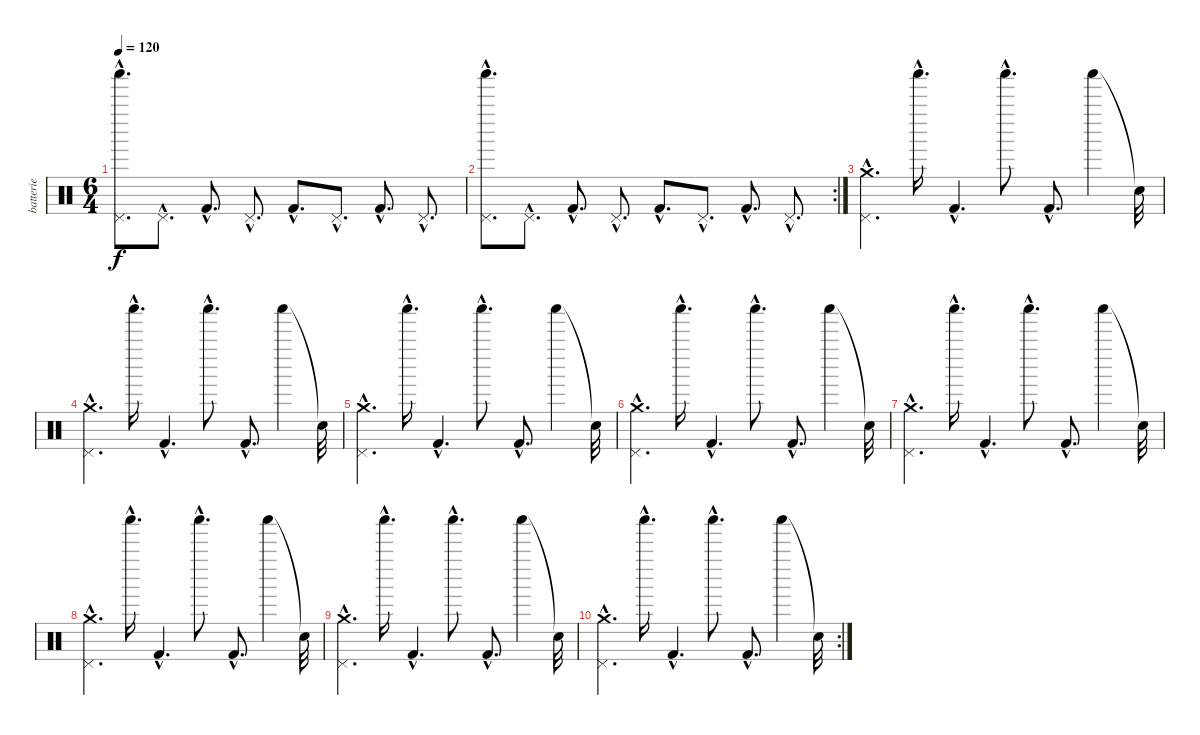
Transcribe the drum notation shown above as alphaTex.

\track ("batterie" "batterie") {instrument percussion}
\staff {score}
\articulation defaults
\ts (6 4)
\tempo 120
\clef neutral
\ks c
("Pedal Hi-Hat (hit)"{hac} "Shaker (hit)"{hac}).8{d dy f} "Pedal Hi-Hat (hit)"{hac}.8{d} "Kick (hit) 2"{hac}.8{d} "Pedal Hi-Hat (hit)"{hac}.8{d} "Kick (hit) 2"{hac}.8{d} "Pedal Hi-Hat (hit)"{hac}.8{d} "Kick (hit) 2"{hac}.8{d} "Pedal Hi-Hat (hit)"{hac}.8{d} |
\rc 2
("Pedal Hi-Hat (hit)"{hac} "Shaker (hit)"{hac}).8{d} "Pedal Hi-Hat (hit)"{hac}.8{d} "Kick (hit) 2"{hac}.8{d} "Pedal Hi-Hat (hit)"{hac}.8{d} "Kick (hit) 2"{hac}.8{d} "Pedal Hi-Hat (hit)"{hac}.8{d} "Kick (hit) 2"{hac}.8{d} "Pedal Hi-Hat (hit)"{hac}.8{d} |
("Pedal Hi-Hat (hit)"{hac} "Crash medium (hit)"{hac}).4{d} "Shaker (hit)"{hac}.16{d} "Kick (hit) 2"{hac}.4{d} "Shaker (hit)"{hac}.8{d} "Kick (hit) 2"{hac}.8{d} "Shaker (hit)".4 "Snare (hit)"{t}.32 |
("Pedal Hi-Hat (hit)"{hac} "Crash medium (hit)"{hac}).4{d} "Shaker (hit)"{hac}.16{d} "Kick (hit) 2"{hac}.4{d} "Shaker (hit)"{hac}.8{d} "Kick (hit) 2"{hac}.8{d} "Shaker (hit)".4 "Snare (hit)"{t}.32 |
("Pedal Hi-Hat (hit)"{hac} "Crash medium (hit)"{hac}).4{d} "Shaker (hit)"{hac}.16{d} "Kick (hit) 2"{hac}.4{d} "Shaker (hit)"{hac}.8{d} "Kick (hit) 2"{hac}.8{d} "Shaker (hit)".4 "Snare (hit)"{t}.32 |
("Pedal Hi-Hat (hit)"{hac} "Crash medium (hit)"{hac}).4{d} "Shaker (hit)"{hac}.16{d} "Kick (hit) 2"{hac}.4{d} "Shaker (hit)"{hac}.8{d} "Kick (hit) 2"{hac}.8{d} "Shaker (hit)".4 "Snare (hit)"{t}.32 |
("Pedal Hi-Hat (hit)"{hac} "Crash medium (hit)"{hac}).4{d} "Shaker (hit)"{hac}.16{d} "Kick (hit) 2"{hac}.4{d} "Shaker (hit)"{hac}.8{d} "Kick (hit) 2"{hac}.8{d} "Shaker (hit)".4 "Snare (hit)"{t}.32 |
("Pedal Hi-Hat (hit)"{hac} "Crash medium (hit)"{hac}).4{d} "Shaker (hit)"{hac}.16{d} "Kick (hit) 2"{hac}.4{d} "Shaker (hit)"{hac}.8{d} "Kick (hit) 2"{hac}.8{d} "Shaker (hit)".4 "Snare (hit)"{t}.32 |
("Pedal Hi-Hat (hit)"{hac} "Crash medium (hit)"{hac}).4{d} "Shaker (hit)"{hac}.16{d} "Kick (hit) 2"{hac}.4{d} "Shaker (hit)"{hac}.8{d} "Kick (hit) 2"{hac}.8{d} "Shaker (hit)".4 "Snare (hit)"{t}.32 |
\rc 2
("Pedal Hi-Hat (hit)"{hac} "Crash medium (hit)"{hac}).4{d} "Shaker (hit)"{hac}.16{d} "Kick (hit) 2"{hac}.4{d} "Shaker (hit)"{hac}.8{d} "Kick (hit) 2"{hac}.8{d} "Shaker (hit)".4 "Snare (hit)"{t}.32
